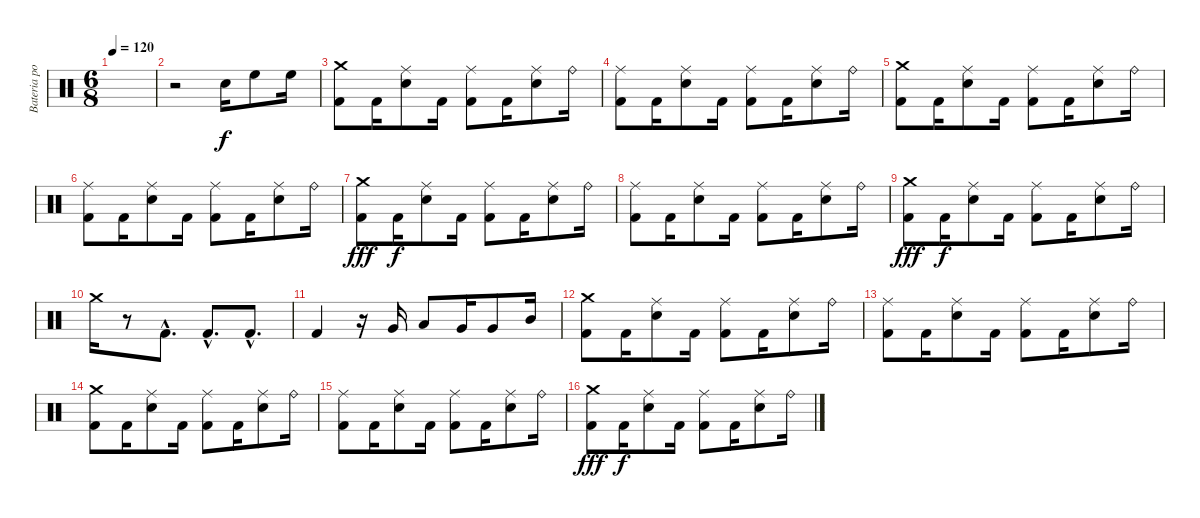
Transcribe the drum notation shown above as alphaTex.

\track ("Bateria por el viejo del bastón" "Bateria po") {instrument percussion}
\staff {score}
\articulation defaults
\ts (6 8)
\tempo 120
\clef neutral
\ks c
|
r.2 "Snare (hit) 2".16 "High Floor Tom (hit)".8 "High Floor Tom (hit)".16 |
("Crash medium (hit)" "Kick (hit) 2").8 "Kick (hit) 2".16 ("Ride (middle)" "Snare (hit) 2").8 "Kick (hit) 2".16 ("Ride (middle)" "Kick (hit) 2").8 "Kick (hit) 2".16 ("Ride (middle)" "Snare (hit) 2").8 "Ride (bell)".16 |
("Ride (middle)" "Kick (hit) 2").8 "Kick (hit) 2".16 ("Ride (middle)" "Snare (hit) 2").8 "Kick (hit) 2".16 ("Ride (middle)" "Kick (hit) 2").8 "Kick (hit) 2".16 ("Ride (middle)" "Snare (hit) 2").8 "Ride (bell)".16 |
("Crash medium (hit)" "Kick (hit) 2").8 "Kick (hit) 2".16 ("Ride (middle)" "Snare (hit) 2").8 "Kick (hit) 2".16 ("Ride (middle)" "Kick (hit) 2").8 "Kick (hit) 2".16 ("Ride (middle)" "Snare (hit) 2").8 "Ride (bell)".16 |
("Ride (middle)" "Kick (hit) 2").8 "Kick (hit) 2".16 ("Ride (middle)" "Snare (hit) 2").8 "Kick (hit) 2".16 ("Ride (middle)" "Kick (hit) 2").8 "Kick (hit) 2".16 ("Ride (middle)" "Snare (hit) 2").8 "Ride (bell)".16 |
("Crash medium (hit)" "Kick (hit) 2").8{dy fff} "Kick (hit) 2".16{dy f} ("Ride (middle)" "Snare (hit) 2").8 "Kick (hit) 2".16 ("Ride (middle)" "Kick (hit) 2").8 "Kick (hit) 2".16 ("Ride (middle)" "Snare (hit) 2").8 "Ride (bell)".16 |
("Ride (middle)" "Kick (hit) 2").8 "Kick (hit) 2".16 ("Ride (middle)" "Snare (hit) 2").8 "Kick (hit) 2".16 ("Ride (middle)" "Kick (hit) 2").8 "Kick (hit) 2".16 ("Ride (middle)" "Snare (hit) 2").8 "Ride (bell)".16 |
("Crash medium (hit)" "Kick (hit) 2").8{dy fff} "Kick (hit) 2".16{dy f} ("Ride (middle)" "Snare (hit) 2").8 "Kick (hit) 2".16 ("Ride (middle)" "Kick (hit) 2").8 "Kick (hit) 2".16 ("Ride (middle)" "Snare (hit) 2").8 "Ride (bell)".16 |
"Crash medium (hit)".16 r.8 "Kick (hit) 2"{hac}.8{d} "Kick (hit) 2"{hac}.8{d} "Kick (hit) 2"{hac}.8{d} |
"Kick (hit) 2".4 r.16 "Very Low Tom (hit)".16 "Low Floor Tom (hit)".8 "Very Low Tom (hit)".16 "Very Low Tom (hit)".8 "Mid Tom (hit)".16 |
("Crash medium (hit)" "Kick (hit) 2").8 "Kick (hit) 2".16 ("Ride (middle)" "Snare (hit) 2").8 "Kick (hit) 2".16 ("Ride (middle)" "Kick (hit) 2").8 "Kick (hit) 2".16 ("Ride (middle)" "Snare (hit) 2").8 "Ride (bell)".16 |
("Ride (middle)" "Kick (hit) 2").8 "Kick (hit) 2".16 ("Ride (middle)" "Snare (hit) 2").8 "Kick (hit) 2".16 ("Ride (middle)" "Kick (hit) 2").8 "Kick (hit) 2".16 ("Ride (middle)" "Snare (hit) 2").8 "Ride (bell)".16 |
("Crash medium (hit)" "Kick (hit) 2").8 "Kick (hit) 2".16 ("Ride (middle)" "Snare (hit) 2").8 "Kick (hit) 2".16 ("Ride (middle)" "Kick (hit) 2").8 "Kick (hit) 2".16 ("Ride (middle)" "Snare (hit) 2").8 "Ride (bell)".16 |
("Ride (middle)" "Kick (hit) 2").8 "Kick (hit) 2".16 ("Ride (middle)" "Snare (hit) 2").8 "Kick (hit) 2".16 ("Ride (middle)" "Kick (hit) 2").8 "Kick (hit) 2".16 ("Ride (middle)" "Snare (hit) 2").8 "Ride (bell)".16 |
("Crash medium (hit)" "Kick (hit) 2").8{dy fff} "Kick (hit) 2".16{dy f} ("Ride (middle)" "Snare (hit) 2").8 "Kick (hit) 2".16 ("Ride (middle)" "Kick (hit) 2").8 "Kick (hit) 2".16 ("Ride (middle)" "Snare (hit) 2").8 "Ride (bell)".16
